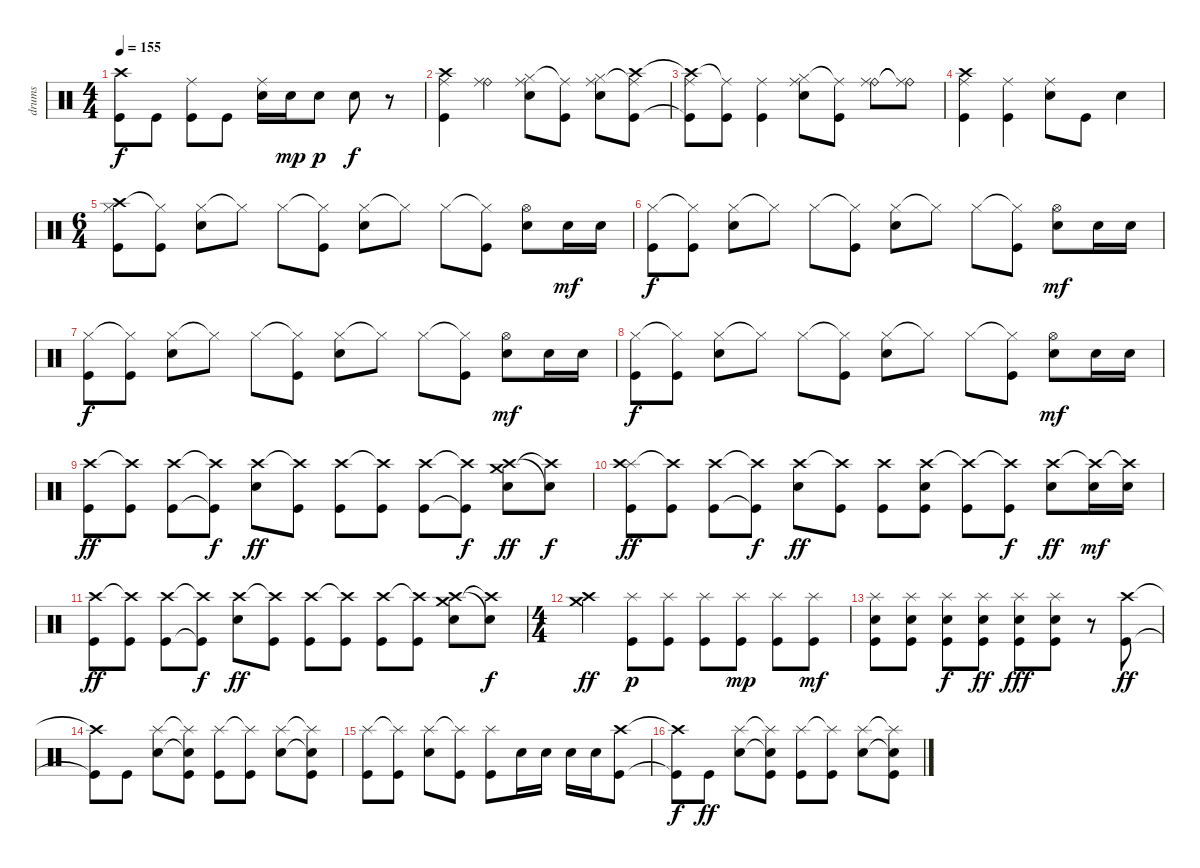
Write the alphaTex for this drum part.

\track ("drums" "drums") {instrument percussion}
\staff {score}
\articulation defaults
\ts (4 4)
\tempo 155
\clef neutral
\ks c
("Crash high (hit)"{t} "Kick (hit)"{t}).8{dy f} "Kick (hit)".8 ("Ride (middle)" "Kick (hit)").8 "Kick (hit)".8 ("Ride (middle)" "Electric Snare (hit)").16 "Electric Snare (hit)".16{dy mp} "Electric Snare (hit)".8{dy p} "Electric Snare (hit)".8{dy f} r.8 |
("Crash high (hit)" "Ride (middle)" "Kick (hit)").4 ("Ride (bell)" "Ride (middle)").4 ("Hi-Hat (closed)" "Ride (middle)" "Electric Snare (hit)").8 ("Ride (middle)"{t} "Kick (hit)").8 ("Hi-Hat (closed)" "Ride (middle)" "Electric Snare (hit)").8 ("Crash high (hit)" "Ride (middle)"{t} "Kick (hit)").8 |
("Crash high (hit)"{t} "Ride (middle)" "Kick (hit)"{t}).8 ("Ride (middle)"{t} "Kick (hit)").8 ("Ride (middle)" "Kick (hit)").4 ("Hi-Hat (closed)" "Ride (middle)" "Electric Snare (hit)").8 ("Ride (middle)"{t} "Kick (hit)").8 ("Ride (bell)" "Ride (middle)").8 ("Ride (bell)"{t} "Ride (middle)"{t}).8 |
("Crash high (hit)" "Ride (middle)" "Kick (hit)").4 ("Ride (middle)" "Kick (hit)").4 ("Ride (middle)" "Electric Snare (hit)").8 "Kick (hit)".8 "Electric Snare (hit)".4 |
\ts (6 4)
("Crash high (hit)" "Hi-Hat (closed)" "Kick (hit)").8 ("Hi-Hat (closed)"{t} "Kick (hit)").8 ("Hi-Hat (closed)" "Electric Snare (hit)").8 "Hi-Hat (closed)"{t}.8 "Hi-Hat (closed)".8 ("Hi-Hat (closed)"{t} "Kick (hit)").8 ("Hi-Hat (closed)" "Electric Snare (hit)").8 "Hi-Hat (closed)"{t}.8 "Hi-Hat (closed)".8 ("Hi-Hat (closed)"{t} "Kick (hit)").8 ("Hi-Hat (open)" "Electric Snare (hit)").8 "Electric Snare (hit)".16{dy mf} "Electric Snare (hit)".16 |
("Hi-Hat (closed)" "Kick (hit)").8{dy f} ("Hi-Hat (closed)"{t} "Kick (hit)").8 ("Hi-Hat (closed)" "Electric Snare (hit)").8 "Hi-Hat (closed)"{t}.8 "Hi-Hat (closed)".8 ("Hi-Hat (closed)"{t} "Kick (hit)").8 ("Hi-Hat (closed)" "Electric Snare (hit)").8 "Hi-Hat (closed)"{t}.8 "Hi-Hat (closed)".8 ("Hi-Hat (closed)"{t} "Kick (hit)").8 ("Hi-Hat (open)" "Electric Snare (hit)").8{dy mf} "Electric Snare (hit)".16 "Electric Snare (hit)".16 |
("Hi-Hat (closed)" "Kick (hit)").8{dy f} ("Hi-Hat (closed)"{t} "Kick (hit)").8 ("Hi-Hat (closed)" "Electric Snare (hit)").8 "Hi-Hat (closed)"{t}.8 "Hi-Hat (closed)".8 ("Hi-Hat (closed)"{t} "Kick (hit)").8 ("Hi-Hat (closed)" "Electric Snare (hit)").8 "Hi-Hat (closed)"{t}.8 "Hi-Hat (closed)".8 ("Hi-Hat (closed)"{t} "Kick (hit)").8 ("Hi-Hat (open)" "Electric Snare (hit)").8{dy mf} "Electric Snare (hit)".16 "Electric Snare (hit)".16 |
("Hi-Hat (closed)" "Kick (hit)").8{dy f} ("Hi-Hat (closed)"{t} "Kick (hit)").8 ("Hi-Hat (closed)" "Electric Snare (hit)").8 "Hi-Hat (closed)"{t}.8 "Hi-Hat (closed)".8 ("Hi-Hat (closed)"{t} "Kick (hit)").8 ("Hi-Hat (closed)" "Electric Snare (hit)").8 "Hi-Hat (closed)"{t}.8 "Hi-Hat (closed)".8 ("Hi-Hat (closed)"{t} "Kick (hit)").8 ("Hi-Hat (open)" "Electric Snare (hit)").8{dy mf} "Electric Snare (hit)".16 "Electric Snare (hit)".16 |
("Crash high (hit)" "Kick (hit)").8{dy ff} ("Crash high (hit)"{t} "Kick (hit)").8 ("Crash high (hit)" "Kick (hit)").8 ("Crash high (hit)"{t} "Kick (hit)"{t}).8{dy f} ("Crash high (hit)" "Electric Snare (hit)").8{dy ff} ("Crash high (hit)"{t} "Kick (hit)").8 ("Crash high (hit)" "Kick (hit)").8 ("Crash high (hit)"{t} "Kick (hit)").8 ("Crash high (hit)" "Kick (hit)").8 ("Crash high (hit)"{t} "Kick (hit)"{t}).8{dy f} ("Crash medium (hit)" "Crash high (hit)" "Electric Snare (hit)").8{dy ff} ("Crash high (hit)"{t} "Electric Snare (hit)"{t}).8{dy f} |
("Splash (hit)" "Crash high (hit)" "Kick (hit)").8{dy ff} ("Crash high (hit)"{t} "Kick (hit)").8 ("Crash high (hit)" "Kick (hit)").8 ("Crash high (hit)"{t} "Kick (hit)"{t}).8{dy f} ("Crash high (hit)" "Electric Snare (hit)").8{dy ff} ("Crash high (hit)"{t} "Kick (hit)").8 ("Crash high (hit)" "Kick (hit)").8 ("Crash high (hit)" "Electric Snare (hit)" "Kick (hit)").8 ("Crash high (hit)"{t} "Kick (hit)").8 ("Crash high (hit)"{t} "Kick (hit)").8{dy f} ("Crash high (hit)" "Electric Snare (hit)").8{dy ff} ("Crash high (hit)"{t} "Electric Snare (hit)").16{dy mf} ("Crash high (hit)"{t} "Electric Snare (hit)").16 |
("Crash high (hit)" "Kick (hit)").8{dy ff} ("Crash high (hit)"{t} "Kick (hit)").8 ("Crash high (hit)" "Kick (hit)").8 ("Crash high (hit)"{t} "Kick (hit)"{t}).8{dy f} ("Crash high (hit)" "Electric Snare (hit)").8{dy ff} ("Crash high (hit)"{t} "Kick (hit)").8 ("Crash high (hit)" "Kick (hit)").8 ("Crash high (hit)"{t} "Kick (hit)").8 ("Crash high (hit)" "Kick (hit)").8 ("Crash high (hit)"{t} "Kick (hit)").8 ("Crash medium (hit)" "Crash high (hit)" "Electric Snare (hit)").8 ("Crash high (hit)"{t} "Electric Snare (hit)"{t}).8{dy f} |
\ts (4 4)
("Crash high (hit)" "Crash medium (hit)").4{dy ff} ("Splash (hit)" "Kick (hit)").8{dy p} ("Splash (hit)" "Kick (hit)").8 ("Splash (hit)" "Kick (hit)").8 ("Splash (hit)" "Kick (hit)").8{dy mp} ("Splash (hit)" "Kick (hit)").8 ("Splash (hit)" "Kick (hit)").8{dy mf} |
("Splash (hit)" "Electric Snare (hit)" "Kick (hit)").8 ("Splash (hit)" "Electric Snare (hit)" "Kick (hit)").8 ("Splash (hit)" "Electric Snare (hit)" "Kick (hit)").8{dy f} ("Splash (hit)" "Electric Snare (hit)" "Kick (hit)").8{dy ff} ("Splash (hit)" "Electric Snare (hit)" "Kick (hit)").8{dy fff} ("Splash (hit)" "Electric Snare (hit)" "Kick (hit)").8 r.8 ("Crash high (hit)" "Kick (hit)").8{dy ff} |
("Crash high (hit)"{t} "Kick (hit)"{t}).8 "Kick (hit)".8 ("Splash (hit)" "Electric Snare (hit)").8 ("Splash (hit)"{t} "Electric Snare (hit)"{t} "Kick (hit)").8 ("Splash (hit)" "Kick (hit)").8 ("Splash (hit)"{t} "Kick (hit)").8 ("Splash (hit)" "Electric Snare (hit)").8 ("Splash (hit)"{t} "Electric Snare (hit)"{t} "Kick (hit)").8 |
("Splash (hit)" "Kick (hit)").8 ("Splash (hit)"{t} "Kick (hit)").8 ("Splash (hit)" "Electric Snare (hit)").8 ("Splash (hit)"{t} "Kick (hit)").8 ("Splash (hit)" "Kick (hit)").8 "Electric Snare (hit)".16 "Electric Snare (hit)".16 "Electric Snare (hit)".16 "Electric Snare (hit)".16 ("Crash high (hit)" "Kick (hit)").8 |
("Crash high (hit)"{t} "Kick (hit)"{t}).8{dy f} "Kick (hit)".8{dy ff} ("Splash (hit)" "Electric Snare (hit)").8 ("Splash (hit)"{t} "Electric Snare (hit)"{t} "Kick (hit)").8 ("Splash (hit)" "Kick (hit)").8 ("Splash (hit)"{t} "Kick (hit)").8 ("Splash (hit)" "Electric Snare (hit)").8 ("Splash (hit)"{t} "Electric Snare (hit)"{t} "Kick (hit)").8
